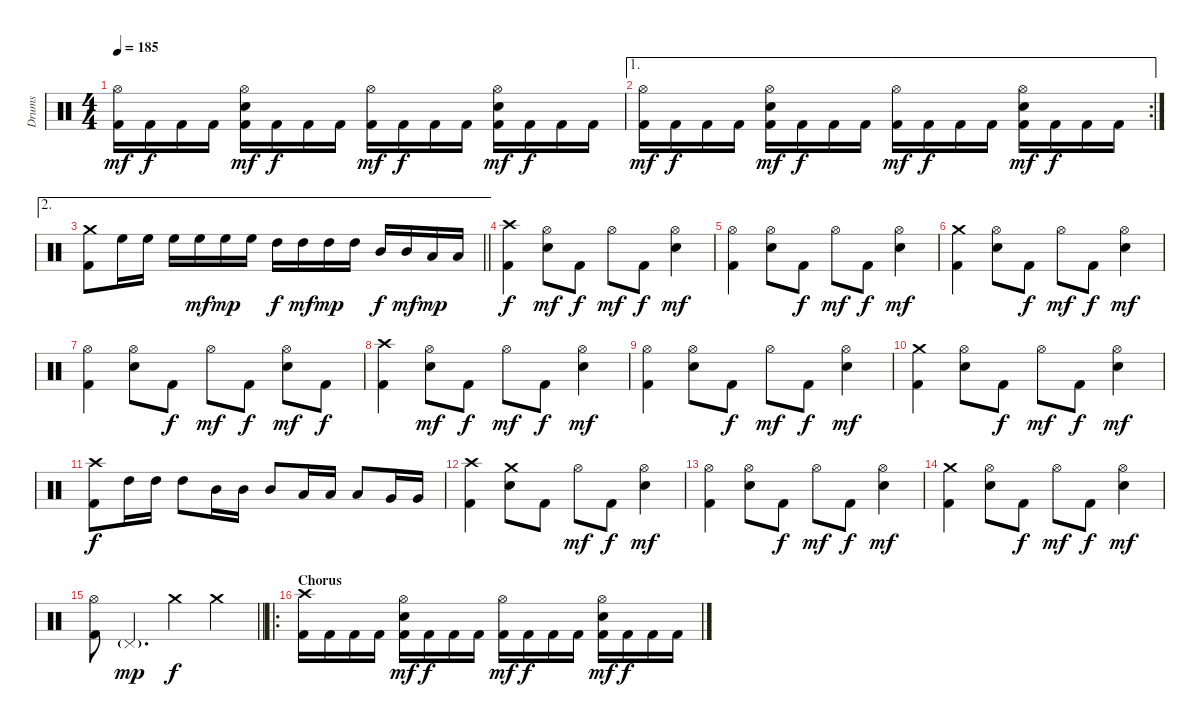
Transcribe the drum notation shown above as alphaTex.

\track ("Drums" "Drums") {instrument percussion}
\staff {score}
\articulation defaults
\ts (4 4)
\tempo 185
\clef neutral
\ks c
("Hi-Hat (open)" "Kick (hit) 2").16{dy mf} "Kick (hit) 2".16{dy f} "Kick (hit) 2".16 "Kick (hit) 2".16 ("Hi-Hat (open)" "Electric Snare (hit)" "Kick (hit) 2").16{dy mf} "Kick (hit) 2".16{dy f} "Kick (hit) 2".16 "Kick (hit) 2".16 ("Hi-Hat (open)" "Kick (hit) 2").16{dy mf} "Kick (hit) 2".16{dy f} "Kick (hit) 2".16 "Kick (hit) 2".16 ("Hi-Hat (open)" "Electric Snare (hit)" "Kick (hit) 2").16{dy mf} "Kick (hit) 2".16{dy f} "Kick (hit) 2".16 "Kick (hit) 2".16 |
\ae 1
\rc 2
("Hi-Hat (open)" "Kick (hit) 2").16{dy mf} "Kick (hit) 2".16{dy f} "Kick (hit) 2".16 "Kick (hit) 2".16 ("Hi-Hat (open)" "Electric Snare (hit)" "Kick (hit) 2").16{dy mf} "Kick (hit) 2".16{dy f} "Kick (hit) 2".16 "Kick (hit) 2".16 ("Hi-Hat (open)" "Kick (hit) 2").16{dy mf} "Kick (hit) 2".16{dy f} "Kick (hit) 2".16 "Kick (hit) 2".16 ("Hi-Hat (open)" "Electric Snare (hit)" "Kick (hit) 2").16{dy mf} "Kick (hit) 2".16{dy f} "Kick (hit) 2".16 "Kick (hit) 2".16 |
\ae 2
\barLineRight lightlight
("Crash medium (hit)" "Kick (hit) 2").8 "High Floor Tom (hit)".16 "High Floor Tom (hit)".16 "High Floor Tom (hit)".16 "High Floor Tom (hit)".16{dy mf} "High Floor Tom (hit)".16{dy mp} "High Floor Tom (hit)".16 "High Tom (hit)".16{dy f} "High Tom (hit)".16{dy mf} "High Tom (hit)".16{dy mp} "High Tom (hit)".16 "Mid Tom (hit)".16{dy f} "Mid Tom (hit)".16{dy mf} "Low Tom (hit)".16{dy mp} "Low Tom (hit)".16 |
("Crash high (hit)" "Kick (hit) 2").4{dy f} ("Hi-Hat (open)" "Electric Snare (hit)").8{dy mf} "Kick (hit) 2".8{dy f} "Hi-Hat (open)".8{dy mf} "Kick (hit) 2".8{dy f} ("Hi-Hat (open)" "Electric Snare (hit)").4{dy mf} |
("Hi-Hat (open)" "Kick (hit) 2").4 ("Hi-Hat (open)" "Electric Snare (hit)").8 "Kick (hit) 2".8{dy f} "Hi-Hat (open)".8{dy mf} "Kick (hit) 2".8{dy f} ("Hi-Hat (open)" "Electric Snare (hit)").4{dy mf} |
("Crash medium (hit)" "Kick (hit) 2").4 ("Hi-Hat (open)" "Electric Snare (hit)").8 "Kick (hit) 2".8{dy f} "Hi-Hat (open)".8{dy mf} "Kick (hit) 2".8{dy f} ("Hi-Hat (open)" "Electric Snare (hit)").4{dy mf} |
("Hi-Hat (open)" "Kick (hit) 2").4 ("Hi-Hat (open)" "Electric Snare (hit)").8 "Kick (hit) 2".8{dy f} "Hi-Hat (open)".8{dy mf} "Kick (hit) 2".8{dy f} ("Hi-Hat (open)" "Electric Snare (hit)").8{dy mf} "Kick (hit) 2".8{dy f} |
("Crash high (hit)" "Kick (hit) 2").4 ("Hi-Hat (open)" "Electric Snare (hit)").8{dy mf} "Kick (hit) 2".8{dy f} "Hi-Hat (open)".8{dy mf} "Kick (hit) 2".8{dy f} ("Hi-Hat (open)" "Electric Snare (hit)").4{dy mf} |
("Hi-Hat (open)" "Kick (hit) 2").4 ("Hi-Hat (open)" "Electric Snare (hit)").8 "Kick (hit) 2".8{dy f} "Hi-Hat (open)".8{dy mf} "Kick (hit) 2".8{dy f} ("Hi-Hat (open)" "Electric Snare (hit)").4{dy mf} |
("Crash medium (hit)" "Kick (hit) 2").4 ("Hi-Hat (open)" "Electric Snare (hit)").8 "Kick (hit) 2".8{dy f} "Hi-Hat (open)".8{dy mf} "Kick (hit) 2".8{dy f} ("Hi-Hat (open)" "Electric Snare (hit)").4{dy mf} |
("Crash high (hit)" "Kick (hit) 2").8{dy f} "High Tom (hit)".16 "High Tom (hit)".16 "High Tom (hit)".8 "Mid Tom (hit)".16 "Mid Tom (hit)".16 "Mid Tom (hit)".8 "Low Tom (hit)".16 "Low Tom (hit)".16 "Low Tom (hit)".8 "Very Low Tom (hit)".16 "Very Low Tom (hit)".16 |
("Crash high (hit)" "Kick (hit) 2").4 ("Crash medium (hit)" "Electric Snare (hit)").8 "Kick (hit) 2".8 "Hi-Hat (open)".8{dy mf} "Kick (hit) 2".8{dy f} ("Hi-Hat (open)" "Electric Snare (hit)").4{dy mf} |
("Hi-Hat (open)" "Kick (hit) 2").4 ("Hi-Hat (open)" "Electric Snare (hit)").8 "Kick (hit) 2".8{dy f} "Hi-Hat (open)".8{dy mf} "Kick (hit) 2".8{dy f} ("Hi-Hat (open)" "Electric Snare (hit)").4{dy mf} |
("Crash medium (hit)" "Kick (hit) 2").4 ("Hi-Hat (open)" "Electric Snare (hit)").8 "Kick (hit) 2".8{dy f} "Hi-Hat (open)".8{dy mf} "Kick (hit) 2".8{dy f} ("Hi-Hat (open)" "Electric Snare (hit)").4{dy mf} |
\barLineRight lightlight
("Hi-Hat (open)" "Kick (hit) 2").8 "Pedal Hi-Hat (hit)"{g}.4{d dy mp} "Crash medium (hit)".4{dy f} "Crash medium (hit)".4 |
\ro
\section ("" "Chorus")
("Crash high (hit)" "Kick (hit) 2").16 "Kick (hit) 2".16 "Kick (hit) 2".16 "Kick (hit) 2".16 ("Hi-Hat (open)" "Electric Snare (hit)" "Kick (hit) 2").16{dy mf} "Kick (hit) 2".16{dy f} "Kick (hit) 2".16 "Kick (hit) 2".16 ("Hi-Hat (open)" "Kick (hit) 2").16{dy mf} "Kick (hit) 2".16{dy f} "Kick (hit) 2".16 "Kick (hit) 2".16 ("Hi-Hat (open)" "Electric Snare (hit)" "Kick (hit) 2").16{dy mf} "Kick (hit) 2".16{dy f} "Kick (hit) 2".16 "Kick (hit) 2".16
